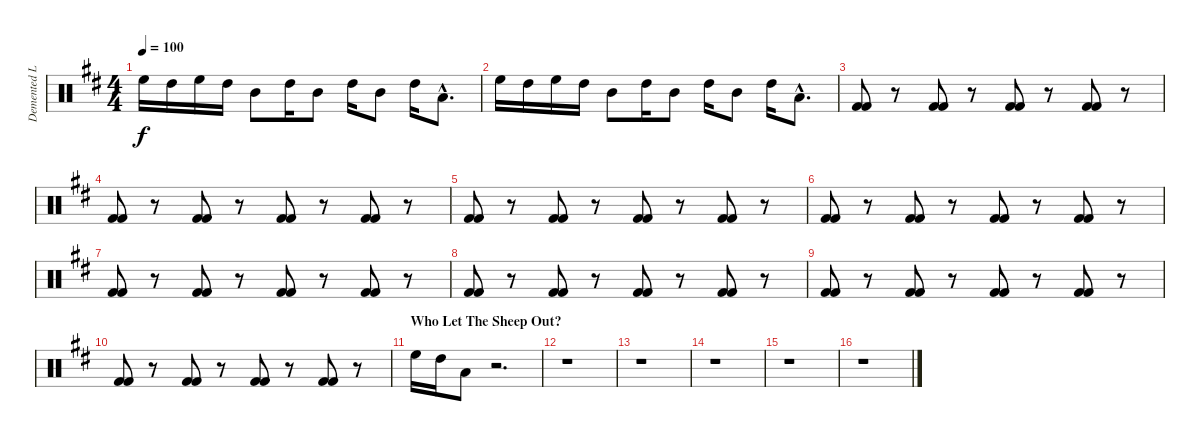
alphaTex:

\track ("Demented Leming (Drums)" "Demented L") {instrument percussion}
\staff {score}
\articulation defaults
\ts (4 4)
\tempo 100
\clef neutral
\ks d "High Floor Tom (hit)".16{dy f} "High Tom (hit)".16 "High Floor Tom (hit)".16 "High Tom (hit)".16 "Mid Tom (hit)".8 "High Tom (hit)".16 "Mid Tom (hit)".8 "High Tom (hit)".16 "Mid Tom (hit)".8 "High Tom (hit)".16 "Low Tom (hit)"{hac}.8{d}
|
"High Floor Tom (hit)".16 "High Tom (hit)".16 "High Floor Tom (hit)".16 "High Tom (hit)".16 "Mid Tom (hit)".8 "High Tom (hit)".16 "Mid Tom (hit)".8 "High Tom (hit)".16 "Mid Tom (hit)".8 "High Tom (hit)".16 "Low Tom (hit)"{hac}.8{d} |
("Kick (hit) 2" "Kick (hit) 2").8 r.8 ("Kick (hit) 2" "Kick (hit) 2").8 r.8 ("Kick (hit) 2" "Kick (hit) 2").8 r.8 ("Kick (hit) 2" "Kick (hit) 2").8 r.8 |
("Kick (hit) 2" "Kick (hit) 2").8 r.8 ("Kick (hit) 2" "Kick (hit) 2").8 r.8 ("Kick (hit) 2" "Kick (hit) 2").8 r.8 ("Kick (hit) 2" "Kick (hit) 2").8 r.8 |
("Kick (hit) 2" "Kick (hit) 2").8 r.8 ("Kick (hit) 2" "Kick (hit) 2").8 r.8 ("Kick (hit) 2" "Kick (hit) 2").8 r.8 ("Kick (hit) 2" "Kick (hit) 2").8 r.8 |
("Kick (hit) 2" "Kick (hit) 2").8 r.8 ("Kick (hit) 2" "Kick (hit) 2").8 r.8 ("Kick (hit) 2" "Kick (hit) 2").8 r.8 ("Kick (hit) 2" "Kick (hit) 2").8 r.8 |
("Kick (hit) 2" "Kick (hit) 2").8 r.8 ("Kick (hit) 2" "Kick (hit) 2").8 r.8 ("Kick (hit) 2" "Kick (hit) 2").8 r.8 ("Kick (hit) 2" "Kick (hit) 2").8 r.8 |
("Kick (hit) 2" "Kick (hit) 2").8 r.8 ("Kick (hit) 2" "Kick (hit) 2").8 r.8 ("Kick (hit) 2" "Kick (hit) 2").8 r.8 ("Kick (hit) 2" "Kick (hit) 2").8 r.8 |
("Kick (hit) 2" "Kick (hit) 2").8 r.8 ("Kick (hit) 2" "Kick (hit) 2").8 r.8 ("Kick (hit) 2" "Kick (hit) 2").8 r.8 ("Kick (hit) 2" "Kick (hit) 2").8 r.8 |
("Kick (hit) 2" "Kick (hit) 2").8 r.8 ("Kick (hit) 2" "Kick (hit) 2").8 r.8 ("Kick (hit) 2" "Kick (hit) 2").8 r.8 ("Kick (hit) 2" "Kick (hit) 2").8 r.8 |
\section ("" "Who Let The Sheep Out?")
"High Floor Tom (hit)".16 "High Tom (hit)".16 "Low Tom (hit)".8 r.2{d} |
r.1 |
r.1 |
r.1 |
r.1 |
r.1
